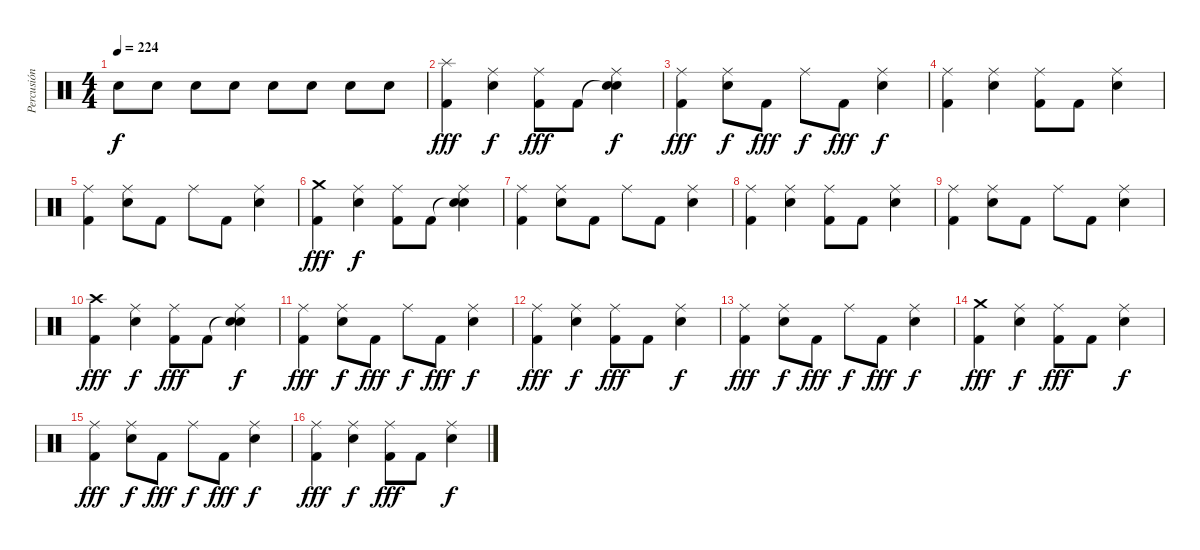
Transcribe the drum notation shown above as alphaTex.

\track ("Percusión" "Percusión") {instrument percussion}
\staff {score}
\articulation defaults
\ts (4 4)
\tempo 224
\clef neutral
\ks c "Electric Snare (hit)".8{dy f} "Electric Snare (hit)".8 "Electric Snare (hit)".8 "Electric Snare (hit)".8 "Electric Snare (hit)".8 "Electric Snare (hit)".8 "Electric Snare (hit)".8 "Electric Snare (hit)".8
|
("Splash (hit)" "Kick (hit) 2").4{dy fff volume 14} ("Ride (middle)" "Electric Snare (hit)").4{dy f} ("Ride (middle)" "Kick (hit) 2").8{dy fff} "Kick (hit) 2".8 ("Snare (hit)"{t} "Ride (middle)" "Electric Snare (hit)").4{dy f} |
("Ride (middle)" "Kick (hit) 2").4{dy fff} ("Ride (middle)" "Electric Snare (hit)").8{dy f} "Kick (hit) 2".8{dy fff} "Ride (middle)".8{dy f} "Kick (hit) 2".8{dy fff} ("Ride (middle)" "Electric Snare (hit)").4{dy f} |
("Ride (middle)" "Kick (hit) 2").4 ("Ride (middle)" "Electric Snare (hit)").4 ("Ride (middle)" "Kick (hit) 2").8 "Kick (hit) 2".8 ("Ride (middle)" "Electric Snare (hit)").4 |
("Ride (middle)" "Kick (hit) 2").4 ("Ride (middle)" "Electric Snare (hit)").8 "Kick (hit) 2".8 "Ride (middle)".8 "Kick (hit) 2".8 ("Ride (middle)" "Electric Snare (hit)").4 |
("Crash medium (hit)" "Kick (hit) 2").4{dy fff} ("Ride (middle)" "Electric Snare (hit)").4{dy f} ("Ride (middle)" "Kick (hit) 2").8 "Kick (hit) 2".8 ("Snare (hit)"{t} "Ride (middle)" "Electric Snare (hit)").4 |
("Ride (middle)" "Kick (hit) 2").4 ("Ride (middle)" "Electric Snare (hit)").8 "Kick (hit) 2".8 "Ride (middle)".8 "Kick (hit) 2".8 ("Ride (middle)" "Electric Snare (hit)").4 |
("Ride (middle)" "Kick (hit) 2").4 ("Ride (middle)" "Electric Snare (hit)").4 ("Ride (middle)" "Kick (hit) 2").8 "Kick (hit) 2".8 ("Ride (middle)" "Electric Snare (hit)").4 |
("Ride (middle)" "Kick (hit) 2").4 ("Ride (middle)" "Electric Snare (hit)").8 "Kick (hit) 2".8 "Ride (middle)".8 "Kick (hit) 2".8 ("Ride (middle)" "Electric Snare (hit)").4 |
("Crash high (hit)" "Kick (hit) 2").4{dy fff} ("Ride (middle)" "Electric Snare (hit)").4{dy f} ("Ride (middle)" "Kick (hit) 2").8{dy fff} "Kick (hit) 2".8 ("Snare (hit)"{t} "Ride (middle)" "Electric Snare (hit)").4{dy f} |
("Ride (middle)" "Kick (hit) 2").4{dy fff} ("Ride (middle)" "Electric Snare (hit)").8{dy f} "Kick (hit) 2".8{dy fff} "Ride (middle)".8{dy f} "Kick (hit) 2".8{dy fff} ("Ride (middle)" "Electric Snare (hit)").4{dy f} |
("Ride (middle)" "Kick (hit) 2").4{dy fff} ("Ride (middle)" "Electric Snare (hit)").4{dy f} ("Ride (middle)" "Kick (hit) 2").8{dy fff} "Kick (hit) 2".8 ("Ride (middle)" "Electric Snare (hit)").4{dy f} |
("Ride (middle)" "Kick (hit) 2").4{dy fff} ("Ride (middle)" "Electric Snare (hit)").8{dy f} "Kick (hit) 2".8{dy fff} "Ride (middle)".8{dy f} "Kick (hit) 2".8{dy fff} ("Ride (middle)" "Electric Snare (hit)").4{dy f} |
("Crash medium (hit)" "Kick (hit) 2").4{dy fff} ("Ride (middle)" "Electric Snare (hit)").4{dy f} ("Ride (middle)" "Kick (hit) 2").8{dy fff} "Kick (hit) 2".8 ("Ride (middle)" "Electric Snare (hit)").4{dy f} |
("Ride (middle)" "Kick (hit) 2").4{dy fff} ("Ride (middle)" "Electric Snare (hit)").8{dy f} "Kick (hit) 2".8{dy fff} "Ride (middle)".8{dy f} "Kick (hit) 2".8{dy fff} ("Ride (middle)" "Electric Snare (hit)").4{dy f} |
("Ride (middle)" "Kick (hit) 2").4{dy fff} ("Ride (middle)" "Electric Snare (hit)").4{dy f} ("Ride (middle)" "Kick (hit) 2").8{dy fff} "Kick (hit) 2".8 ("Ride (middle)" "Electric Snare (hit)").4{dy f}
